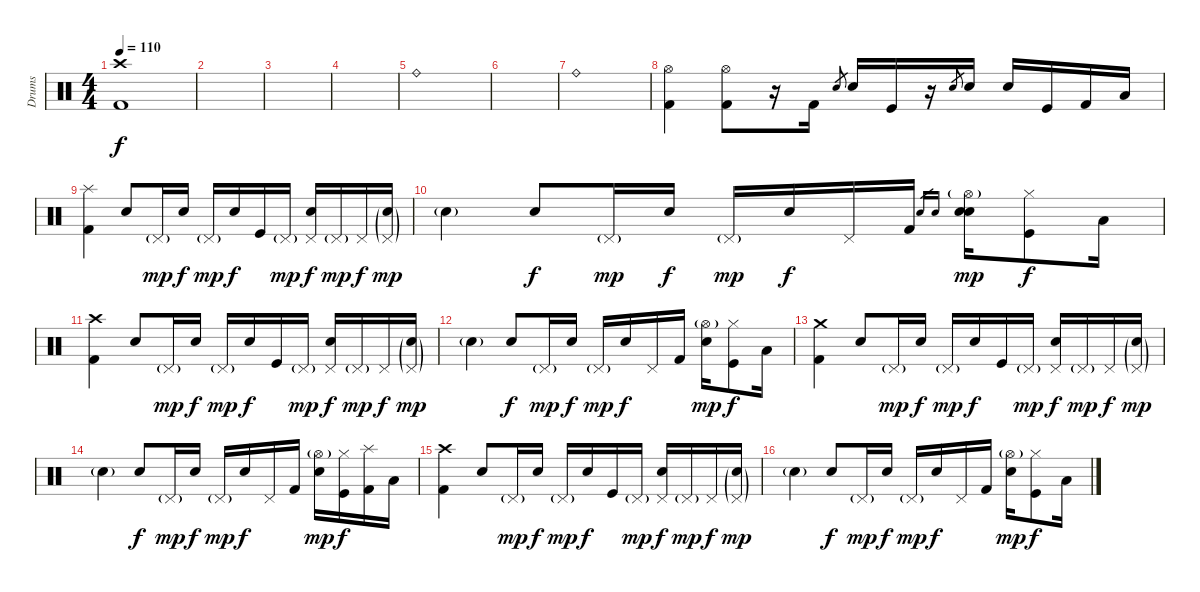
\track ("Drums" "Drums") {instrument percussion}
\staff {score}
\articulation defaults
\ts (4 4)
\tempo 110
\clef neutral
\ks c
("Crash high (hit)" "Kick (hit) 2").1{dy f} |
|
|
|
"Ride (bell)".1 |
|
"Ride (bell)".1 |
("Hi-Hat (open)" "Kick (hit) 2").4 ("Hi-Hat (open)" "Kick (hit) 2").8 r.16 "Kick (hit) 2".16 "Electric Snare (hit)"{sl}.8{gr} "Electric Snare (hit)".16 "Kick (hit)".16 r.16 "Electric Snare (hit)"{sl}.8{gr} "Electric Snare (hit)".16 "Electric Snare (hit)".16 "Kick (hit)".16 "Kick (hit) 2".16 "Low Floor Tom (hit)".16 |
("Splash (hit)" "Kick (hit) 2").4 "Electric Snare (hit)".8 "Pedal Hi-Hat (hit)"{g}.16{dy mp} "Electric Snare (hit)".16{dy f} "Pedal Hi-Hat (hit)"{g}.16{dy mp} "Electric Snare (hit)".16{dy f} "Kick (hit)".16 "Pedal Hi-Hat (hit)"{g}.16{dy mp} ("Pedal Hi-Hat (hit)" "Electric Snare (hit)").16{dy f} "Pedal Hi-Hat (hit)"{g}.16{dy mp} "Pedal Hi-Hat (hit)".16{dy f} ("Pedal Hi-Hat (hit)"{g} "Electric Snare (hit)"{g}).16{dy mp} |
"Electric Snare (hit)"{g}.4 "Electric Snare (hit)".8{dy f} "Pedal Hi-Hat (hit)"{g}.16{dy mp} "Electric Snare (hit)".16{dy f} "Pedal Hi-Hat (hit)"{g}.16{dy mp} "Electric Snare (hit)".16{dy f} "Pedal Hi-Hat (hit)".16 "Kick (hit) 2".16 "Electric Snare (hit)"{sl}.16{gr} "Electric Snare (hit)"{sl}.16{gr} ("Hi-Hat (open)"{g} "Electric Snare (hit)" "Electric Snare (hit)").16{dy mp} ("Hi-Hat (closed)" "Kick (hit)").8{dy f} "Low Floor Tom (hit)".16 |
("Crash high (hit)" "Kick (hit) 2").4 "Electric Snare (hit)".8 "Pedal Hi-Hat (hit)"{g}.16{dy mp} "Electric Snare (hit)".16{dy f} "Pedal Hi-Hat (hit)"{g}.16{dy mp} "Electric Snare (hit)".16{dy f} "Kick (hit)".16 "Pedal Hi-Hat (hit)"{g}.16{dy mp} ("Pedal Hi-Hat (hit)" "Electric Snare (hit)").16{dy f} "Pedal Hi-Hat (hit)"{g}.16{dy mp} "Pedal Hi-Hat (hit)".16{dy f} ("Pedal Hi-Hat (hit)"{g} "Electric Snare (hit)"{g}).16{dy mp} |
"Electric Snare (hit)"{g}.4 "Electric Snare (hit)".8{dy f} "Pedal Hi-Hat (hit)"{g}.16{dy mp} "Electric Snare (hit)".16{dy f} "Pedal Hi-Hat (hit)"{g}.16{dy mp} "Electric Snare (hit)".16{dy f} "Pedal Hi-Hat (hit)".16 "Kick (hit) 2".16 ("Hi-Hat (open)"{g} "Electric Snare (hit)").16{dy mp} ("Hi-Hat (closed)" "Kick (hit)").8{dy f} "Low Floor Tom (hit)".16 |
("Crash medium (hit)" "Kick (hit) 2").4 "Electric Snare (hit)".8 "Pedal Hi-Hat (hit)"{g}.16{dy mp} "Electric Snare (hit)".16{dy f} "Pedal Hi-Hat (hit)"{g}.16{dy mp} "Electric Snare (hit)".16{dy f} "Kick (hit)".16 "Pedal Hi-Hat (hit)"{g}.16{dy mp} ("Pedal Hi-Hat (hit)" "Electric Snare (hit)").16{dy f} "Pedal Hi-Hat (hit)"{g}.16{dy mp} "Pedal Hi-Hat (hit)".16{dy f} ("Pedal Hi-Hat (hit)"{g} "Electric Snare (hit)"{g}).16{dy mp} |
"Electric Snare (hit)"{g}.4 "Electric Snare (hit)".8{dy f} "Pedal Hi-Hat (hit)"{g}.16{dy mp} "Electric Snare (hit)".16{dy f} "Pedal Hi-Hat (hit)"{g}.16{dy mp} "Electric Snare (hit)".16{dy f} "Pedal Hi-Hat (hit)".16 "Kick (hit) 2".16 ("Hi-Hat (open)"{g} "Electric Snare (hit)").16{dy mp} ("Hi-Hat (closed)" "Kick (hit)").16{dy f} ("Splash (hit)" "Kick (hit) 2").16 "Low Floor Tom (hit)".16 |
("Crash high (hit)" "Kick (hit) 2").4 "Electric Snare (hit)".8 "Pedal Hi-Hat (hit)"{g}.16{dy mp} "Electric Snare (hit)".16{dy f} "Pedal Hi-Hat (hit)"{g}.16{dy mp} "Electric Snare (hit)".16{dy f} "Kick (hit)".16 "Pedal Hi-Hat (hit)"{g}.16{dy mp} ("Pedal Hi-Hat (hit)" "Electric Snare (hit)").16{dy f} "Pedal Hi-Hat (hit)"{g}.16{dy mp} "Pedal Hi-Hat (hit)".16{dy f} ("Pedal Hi-Hat (hit)"{g} "Electric Snare (hit)"{g}).16{dy mp} |
"Electric Snare (hit)"{g}.4 "Electric Snare (hit)".8{dy f} "Pedal Hi-Hat (hit)"{g}.16{dy mp} "Electric Snare (hit)".16{dy f} "Pedal Hi-Hat (hit)"{g}.16{dy mp} "Electric Snare (hit)".16{dy f} "Pedal Hi-Hat (hit)".16 "Kick (hit) 2".16 ("Hi-Hat (open)"{g} "Electric Snare (hit)").16{dy mp} ("Hi-Hat (closed)" "Kick (hit)").8{dy f} "Low Floor Tom (hit)".16
